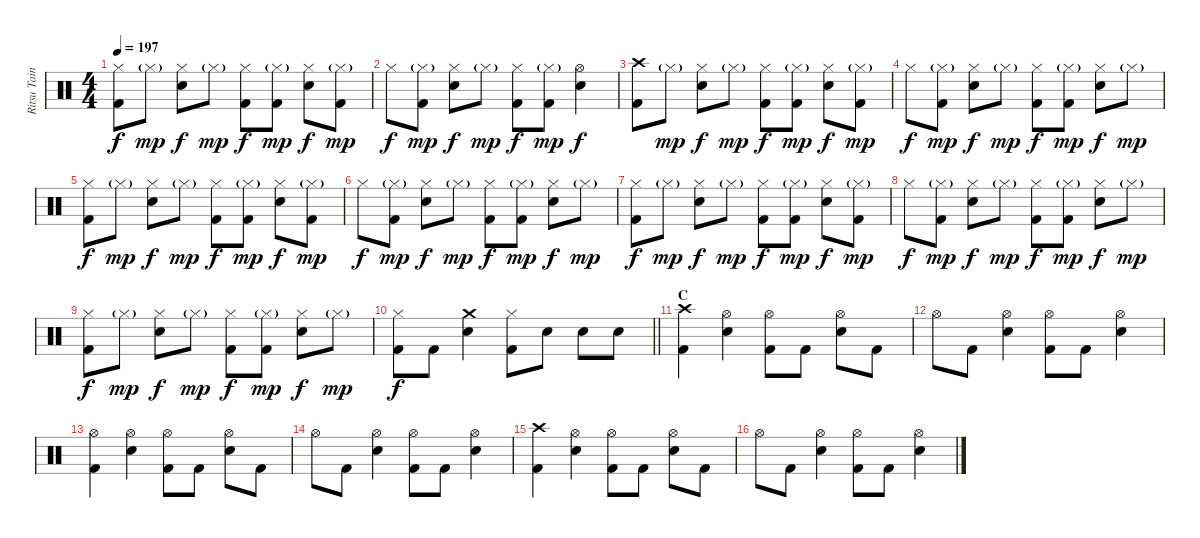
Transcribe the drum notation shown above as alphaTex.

\track ("Ritsu Tainaka" "Ritsu Tain") {instrument percussion}
\staff {score}
\articulation defaults
\ts (4 4)
\tempo 197
\clef neutral
\ks c
("Hi-Hat (closed)" "Kick (hit) 2").8{dy f} "Hi-Hat (closed)"{g}.8{dy mp} ("Hi-Hat (closed)" "Electric Snare (hit)").8{dy f} "Hi-Hat (closed)"{g}.8{dy mp} ("Hi-Hat (closed)" "Kick (hit) 2").8{dy f} ("Hi-Hat (closed)"{g} "Kick (hit) 2").8{dy mp} ("Hi-Hat (closed)" "Electric Snare (hit)").8{dy f} ("Hi-Hat (closed)"{g} "Kick (hit) 2").8{dy mp} |
"Hi-Hat (closed)".8{dy f} ("Hi-Hat (closed)"{g} "Kick (hit) 2").8{dy mp} ("Hi-Hat (closed)" "Electric Snare (hit)").8{dy f} "Hi-Hat (closed)"{g}.8{dy mp} ("Hi-Hat (closed)" "Kick (hit) 2").8{dy f} ("Hi-Hat (closed)"{g} "Kick (hit) 2").8{dy mp} ("Hi-Hat (open)" "Electric Snare (hit)").4{dy f} |
("Crash high (hit)" "Kick (hit) 2").8 "Hi-Hat (closed)"{g}.8{dy mp} ("Hi-Hat (closed)" "Electric Snare (hit)").8{dy f} "Hi-Hat (closed)"{g}.8{dy mp} ("Hi-Hat (closed)" "Kick (hit) 2").8{dy f} ("Hi-Hat (closed)"{g} "Kick (hit) 2").8{dy mp} ("Hi-Hat (closed)" "Electric Snare (hit)").8{dy f} ("Hi-Hat (closed)"{g} "Kick (hit) 2").8{dy mp} |
"Hi-Hat (closed)".8{dy f} ("Hi-Hat (closed)"{g} "Kick (hit) 2").8{dy mp} ("Hi-Hat (closed)" "Electric Snare (hit)").8{dy f} "Hi-Hat (closed)"{g}.8{dy mp} ("Hi-Hat (closed)" "Kick (hit) 2").8{dy f} ("Hi-Hat (closed)"{g} "Kick (hit) 2").8{dy mp} ("Hi-Hat (closed)" "Electric Snare (hit)").8{dy f} "Hi-Hat (closed)"{g}.8{dy mp} |
("Hi-Hat (closed)" "Kick (hit) 2").8{dy f} "Hi-Hat (closed)"{g}.8{dy mp} ("Hi-Hat (closed)" "Electric Snare (hit)").8{dy f} "Hi-Hat (closed)"{g}.8{dy mp} ("Hi-Hat (closed)" "Kick (hit) 2").8{dy f} ("Hi-Hat (closed)"{g} "Kick (hit) 2").8{dy mp} ("Hi-Hat (closed)" "Electric Snare (hit)").8{dy f} ("Hi-Hat (closed)"{g} "Kick (hit) 2").8{dy mp} |
"Hi-Hat (closed)".8{dy f} ("Hi-Hat (closed)"{g} "Kick (hit) 2").8{dy mp} ("Hi-Hat (closed)" "Electric Snare (hit)").8{dy f} "Hi-Hat (closed)"{g}.8{dy mp} ("Hi-Hat (closed)" "Kick (hit) 2").8{dy f} ("Hi-Hat (closed)"{g} "Kick (hit) 2").8{dy mp} ("Hi-Hat (closed)" "Electric Snare (hit)").8{dy f} "Hi-Hat (closed)"{g}.8{dy mp} |
("Hi-Hat (closed)" "Kick (hit) 2").8{dy f} "Hi-Hat (closed)"{g}.8{dy mp} ("Hi-Hat (closed)" "Electric Snare (hit)").8{dy f} "Hi-Hat (closed)"{g}.8{dy mp} ("Hi-Hat (closed)" "Kick (hit) 2").8{dy f} ("Hi-Hat (closed)"{g} "Kick (hit) 2").8{dy mp} ("Hi-Hat (closed)" "Electric Snare (hit)").8{dy f} ("Hi-Hat (closed)"{g} "Kick (hit) 2").8{dy mp} |
"Hi-Hat (closed)".8{dy f} ("Hi-Hat (closed)"{g} "Kick (hit) 2").8{dy mp} ("Hi-Hat (closed)" "Electric Snare (hit)").8{dy f} "Hi-Hat (closed)"{g}.8{dy mp} ("Hi-Hat (closed)" "Kick (hit) 2").8{dy f} ("Hi-Hat (closed)"{g} "Kick (hit) 2").8{dy mp} ("Hi-Hat (closed)" "Electric Snare (hit)").8{dy f} "Hi-Hat (closed)"{g}.8{dy mp} |
("Hi-Hat (closed)" "Kick (hit) 2").8{dy f} "Hi-Hat (closed)"{g}.8{dy mp} ("Hi-Hat (closed)" "Electric Snare (hit)").8{dy f} "Hi-Hat (closed)"{g}.8{dy mp} ("Hi-Hat (closed)" "Kick (hit) 2").8{dy f} ("Hi-Hat (closed)"{g} "Kick (hit) 2").8{dy mp} ("Hi-Hat (closed)" "Electric Snare (hit)").8{dy f} "Hi-Hat (closed)"{g}.8{dy mp} |
\barLineRight lightlight
("Hi-Hat (closed)" "Kick (hit) 2").8{dy f} "Kick (hit) 2".8 ("Crash medium (hit)" "Electric Snare (hit)").4 ("Hi-Hat (closed)" "Kick (hit) 2").8 "Electric Snare (hit)".8 "Electric Snare (hit)".8 "Electric Snare (hit)".8 |
\section ("" "C")
("Crash high (hit)" "Kick (hit) 2").4 ("Hi-Hat (open)" "Electric Snare (hit)").4 ("Hi-Hat (open)" "Kick (hit) 2").8 "Kick (hit) 2".8 ("Hi-Hat (open)" "Electric Snare (hit)").8 "Kick (hit) 2".8 |
"Hi-Hat (open)".8 "Kick (hit) 2".8 ("Hi-Hat (open)" "Electric Snare (hit)").4 ("Hi-Hat (open)" "Kick (hit) 2").8 "Kick (hit) 2".8 ("Hi-Hat (open)" "Electric Snare (hit)").4 |
("Hi-Hat (open)" "Kick (hit) 2").4 ("Hi-Hat (open)" "Electric Snare (hit)").4 ("Hi-Hat (open)" "Kick (hit) 2").8 "Kick (hit) 2".8 ("Hi-Hat (open)" "Electric Snare (hit)").8 "Kick (hit) 2".8 |
"Hi-Hat (open)".8 "Kick (hit) 2".8 ("Hi-Hat (open)" "Electric Snare (hit)").4 ("Hi-Hat (open)" "Kick (hit) 2").8 "Kick (hit) 2".8 ("Hi-Hat (open)" "Electric Snare (hit)").4 |
("Crash high (hit)" "Kick (hit) 2").4 ("Hi-Hat (open)" "Electric Snare (hit)").4 ("Hi-Hat (open)" "Kick (hit) 2").8 "Kick (hit) 2".8 ("Hi-Hat (open)" "Electric Snare (hit)").8 "Kick (hit) 2".8 |
"Hi-Hat (open)".8 "Kick (hit) 2".8 ("Hi-Hat (open)" "Electric Snare (hit)").4 ("Hi-Hat (open)" "Kick (hit) 2").8 "Kick (hit) 2".8 ("Hi-Hat (open)" "Electric Snare (hit)").4
